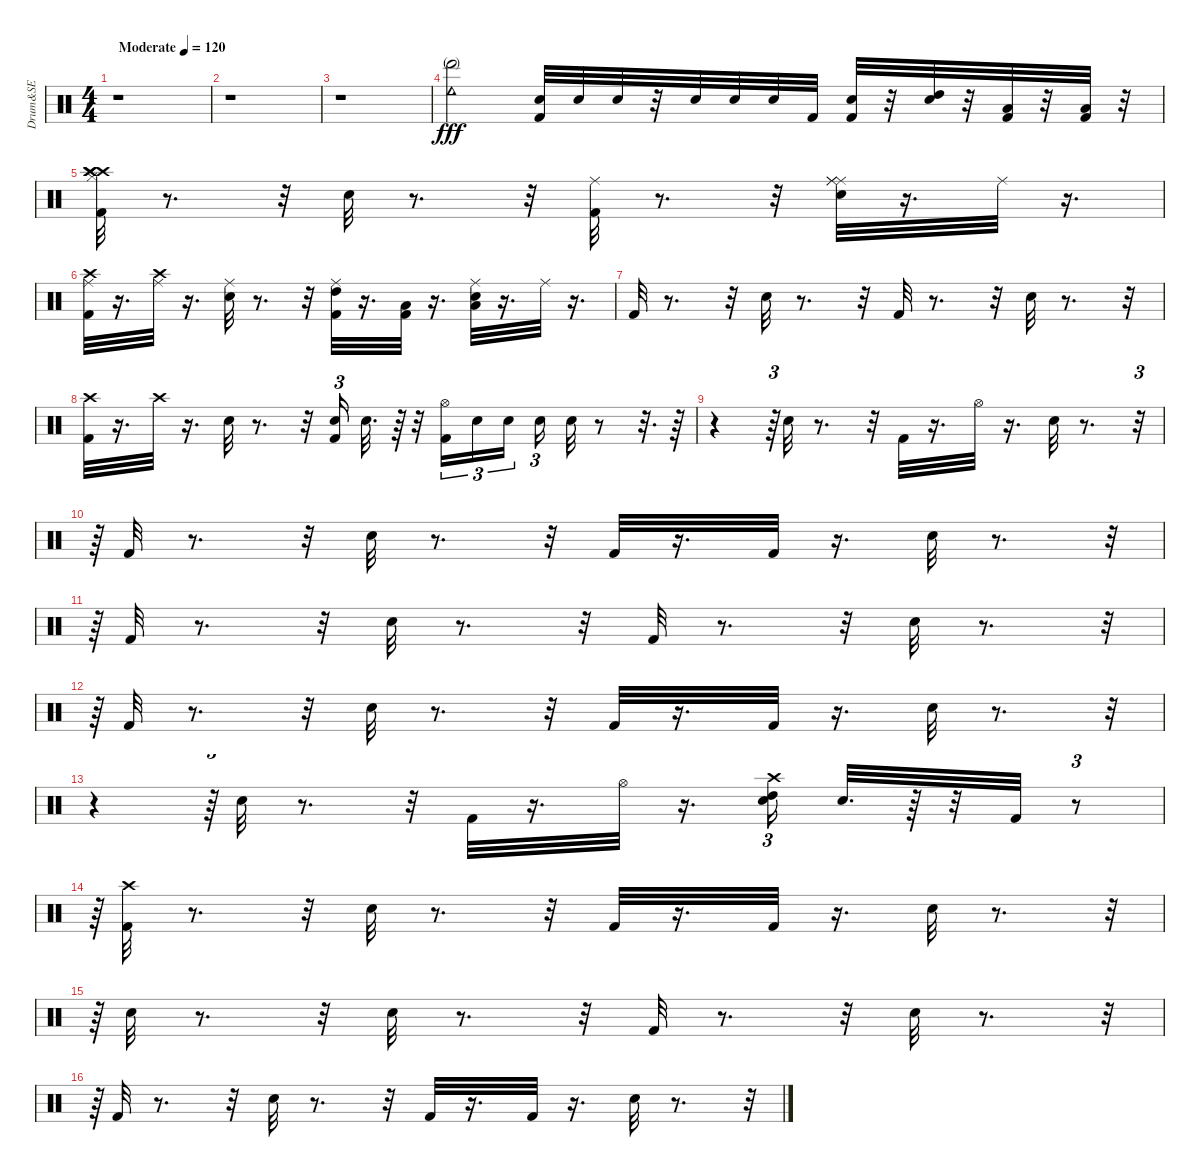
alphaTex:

\track ("Drum&SE" "Drum&SE") {instrument percussion}
\staff {score}
\articulation defaults
\ts (4 4)
\tempo (120 "Moderate")
\clef neutral
\ks c
r.1{dy fff} |
r.1 |
r.1 |
("Cowbell low (hit)" "Hand (mute)").2{volume 15} ("Kick (hit) 2" "Electric Snare (hit)").32 "Electric Snare (hit)".32 "Electric Snare (hit)".32 r.32 "Electric Snare (hit)".32 "Electric Snare (hit)".32 "Electric Snare (hit)".32 "Kick (hit) 2".32 ("Kick (hit) 2" "Electric Snare (hit)").32 r.32 ("Electric Snare (hit)" "High Tom (hit)").32 r.32 ("Kick (hit) 2" "Low Tom (hit)").32 r.32 ("Kick (hit) 2" "Low Floor Tom (hit)").32 r.32 |
("Kick (hit) 2" "Crash high (hit)" "Hi-Hat (closed)" "Crash high (hit)" "Crash high (hit)").32 r.8{d} r.32 "Snare (hit) 2".32 r.8{d} r.32 ("Kick (hit) 2" "Ride (middle)").32 r.8{d} r.32 ("Ride (middle)" "Ride (middle)" "Snare (hit) 2" "Ride (middle)").32 r.16{d} "Ride (middle)".32 r.16{d} |
("Kick (hit) 2" "Crash high (hit)" "Ride (middle)").32 r.16{d} ("Crash high (hit)" "Ride (middle)").32 r.16{d} ("Snare (hit) 2" "Ride (middle)").32 r.8{d} r.32 ("Kick (hit) 2" "High Tom (hit)" "Ride (middle)").32 r.16{d} ("Kick (hit) 2" "Low Tom (hit)").32 r.16{d} ("Low Floor Tom (hit)" "Snare (hit) 2" "Ride (middle)").32 r.16{d} "Ride (middle)".32 r.16{d} |
"Kick (hit) 2".32 r.8{d} r.32 "Snare (hit) 2".32 r.8{d} r.32 "Kick (hit) 2".32 r.8{d} r.32 "Snare (hit) 2".32 r.8{d} r.32 |
("Kick (hit) 2" "Crash high (hit)").32 r.16{d} "Crash high (hit)".32 r.16{d} "Snare (hit) 2".32 r.8{d} r.32 ("Kick (hit) 2" "Snare (hit) 2").16{tu (3 2)} "Snare (hit) 2".32{d} r.64 r.32 ("Kick (hit) 2" "Hi-Hat (open)").16{tu (3 2)} "Snare (hit) 2".16{tu (3 2)} "Snare (hit) 2".16{tu (3 2)} "Snare (hit) 2".16{tu (3 2)} "Snare (hit) 2".32 r.8 r.32{d} r.64 |
r.4 r.64{tu (3 2)} "Snare (hit) 2".32 r.8{d} r.32 "Kick (hit) 2".32 r.16{d} "Hi-Hat (open)".32 r.16{d} "Snare (hit) 2".32 r.8{d} r.32{tu (3 2)} |
r.64{tu (3 2)} "Kick (hit) 2".32 r.8{d} r.32 "Snare (hit) 2".32 r.8{d} r.32 "Kick (hit) 2".32 r.16{d} "Kick (hit) 2".32 r.16{d} "Snare (hit) 2".32 r.8{d} r.32{tu (3 2)} |
r.64{tu (3 2)} "Kick (hit) 2".32 r.8{d} r.32 "Snare (hit) 2".32 r.8{d} r.32 "Kick (hit) 2".32 r.8{d} r.32 "Snare (hit) 2".32 r.8{d} r.32{tu (3 2)} |
r.64{tu (3 2)} "Kick (hit) 2".32 r.8{d} r.32 "Snare (hit) 2".32 r.8{d} r.32 "Kick (hit) 2".32 r.16{d} "Kick (hit) 2".32 r.16{d} "Snare (hit) 2".32 r.8{d} r.32{tu (3 2)} |
r.4 r.64{tu (3 2)} "Snare (hit) 2".32 r.8{d} r.32 "Kick (hit) 2".32 r.16{d} "Hi-Hat (open)".32 r.16{d} ("Snare (hit) 2" "High Tom (hit)" "Crash high (hit)").16{tu (3 2)} "Snare (hit) 2".32{d} r.64 r.32 "Kick (hit) 2".32 r.8{tu (3 2)} |
r.64{tu (3 2)} ("Kick (hit) 2" "Crash high (hit)").32 r.8{d} r.32 "Snare (hit) 2".32 r.8{d} r.32 "Kick (hit) 2".32 r.16{d} "Kick (hit) 2".32 r.16{d} "Snare (hit) 2".32 r.8{d} r.32{tu (3 2)} |
r.64{tu (3 2)} "Snare (hit) 2".32 r.8{d} r.32 "Snare (hit) 2".32 r.8{d} r.32 "Kick (hit) 2".32 r.8{d} r.32 "Snare (hit) 2".32 r.8{d} r.32{tu (3 2)} |
r.64{tu (3 2)} "Kick (hit) 2".32 r.8{d} r.32 "Snare (hit) 2".32 r.8{d} r.32 "Kick (hit) 2".32 r.16{d} "Kick (hit) 2".32 r.16{d} "Snare (hit) 2".32 r.8{d} r.32{tu (3 2)}
